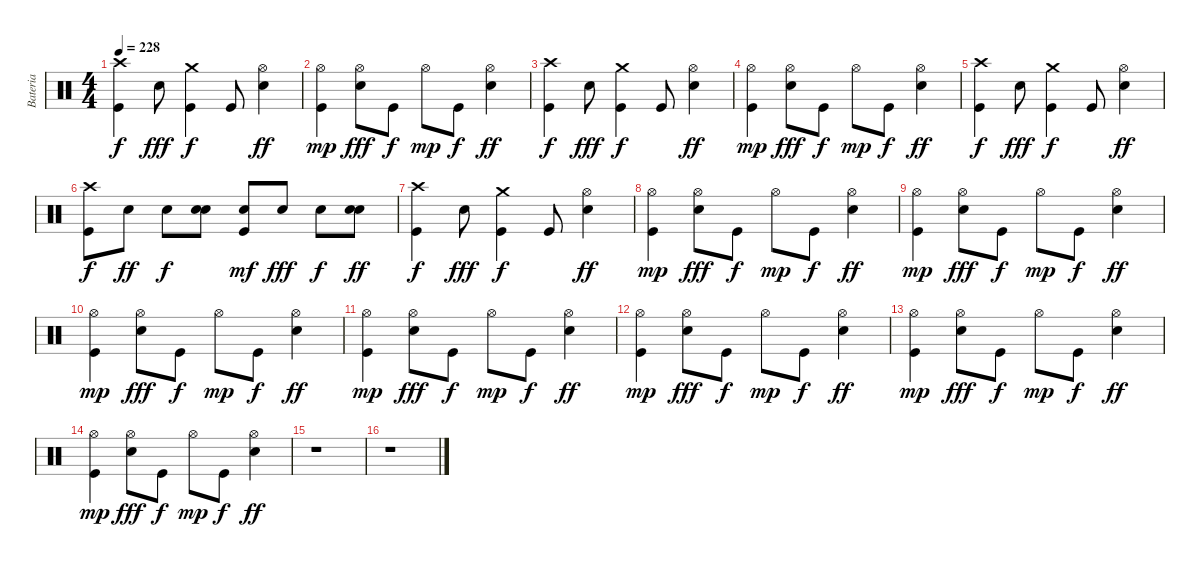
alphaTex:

\track ("Bateria" "Bateria") {instrument percussion}
\staff {score}
\articulation defaults
\ts (4 4)
\tempo 228
\clef neutral
\ks c
("Crash high (hit)" "Kick (hit)").4{dy f} "Electric Snare (hit)".8{dy fff} ("Crash medium (hit)" "Kick (hit)").4{dy f} "Kick (hit)".8 ("Hi-Hat (open)" "Electric Snare (hit)").4{dy ff} |
("Hi-Hat (open)" "Kick (hit)").4{dy mp} ("Hi-Hat (open)" "Electric Snare (hit)").8{dy fff} "Kick (hit)".8{dy f} "Hi-Hat (open)".8{dy mp} "Kick (hit)".8{dy f} ("Hi-Hat (open)" "Electric Snare (hit)").4{dy ff} |
("Crash high (hit)" "Kick (hit)").4{dy f} "Electric Snare (hit)".8{dy fff} ("Crash medium (hit)" "Kick (hit)").4{dy f} "Kick (hit)".8 ("Hi-Hat (open)" "Electric Snare (hit)").4{dy ff} |
("Hi-Hat (open)" "Kick (hit)").4{dy mp} ("Hi-Hat (open)" "Electric Snare (hit)").8{dy fff} "Kick (hit)".8{dy f} "Hi-Hat (open)".8{dy mp} "Kick (hit)".8{dy f} ("Hi-Hat (open)" "Electric Snare (hit)").4{dy ff} |
("Crash high (hit)" "Kick (hit)").4{dy f} "Electric Snare (hit)".8{dy fff} ("Crash medium (hit)" "Kick (hit)").4{dy f} "Kick (hit)".8 ("Hi-Hat (open)" "Electric Snare (hit)").4{dy ff} |
("Crash high (hit)" "Kick (hit)").8{dy f} "Electric Snare (hit)".8{dy ff} "Electric Snare (hit)".8{dy f} ("Electric Snare (hit)" "Electric Snare (hit)").8 ("Electric Snare (hit)" "Kick (hit)").8{dy mf} "Electric Snare (hit)".8{dy fff} "Electric Snare (hit)".8{dy f} ("Electric Snare (hit)" "Electric Snare (hit)").8{dy ff} |
("Crash high (hit)" "Kick (hit)").4{dy f} "Electric Snare (hit)".8{dy fff} ("Crash medium (hit)" "Kick (hit)").4{dy f} "Kick (hit)".8 ("Hi-Hat (open)" "Electric Snare (hit)").4{dy ff} |
("Hi-Hat (open)" "Kick (hit)").4{dy mp} ("Hi-Hat (open)" "Electric Snare (hit)").8{dy fff} "Kick (hit)".8{dy f} "Hi-Hat (open)".8{dy mp} "Kick (hit)".8{dy f} ("Hi-Hat (open)" "Electric Snare (hit)").4{dy ff} |
("Hi-Hat (open)" "Kick (hit)").4{dy mp} ("Hi-Hat (open)" "Electric Snare (hit)").8{dy fff} "Kick (hit)".8{dy f} "Hi-Hat (open)".8{dy mp} "Kick (hit)".8{dy f} ("Hi-Hat (open)" "Electric Snare (hit)").4{dy ff} |
("Hi-Hat (open)" "Kick (hit)").4{dy mp} ("Hi-Hat (open)" "Electric Snare (hit)").8{dy fff} "Kick (hit)".8{dy f} "Hi-Hat (open)".8{dy mp} "Kick (hit)".8{dy f} ("Hi-Hat (open)" "Electric Snare (hit)").4{dy ff} |
("Hi-Hat (open)" "Kick (hit)").4{dy mp} ("Hi-Hat (open)" "Electric Snare (hit)").8{dy fff} "Kick (hit)".8{dy f} "Hi-Hat (open)".8{dy mp} "Kick (hit)".8{dy f} ("Hi-Hat (open)" "Electric Snare (hit)").4{dy ff} |
("Hi-Hat (open)" "Kick (hit)").4{dy mp} ("Hi-Hat (open)" "Electric Snare (hit)").8{dy fff} "Kick (hit)".8{dy f} "Hi-Hat (open)".8{dy mp} "Kick (hit)".8{dy f} ("Hi-Hat (open)" "Electric Snare (hit)").4{dy ff} |
("Hi-Hat (open)" "Kick (hit)").4{dy mp} ("Hi-Hat (open)" "Electric Snare (hit)").8{dy fff} "Kick (hit)".8{dy f} "Hi-Hat (open)".8{dy mp} "Kick (hit)".8{dy f} ("Hi-Hat (open)" "Electric Snare (hit)").4{dy ff} |
("Hi-Hat (open)" "Kick (hit)").4{dy mp} ("Hi-Hat (open)" "Electric Snare (hit)").8{dy fff} "Kick (hit)".8{dy f} "Hi-Hat (open)".8{dy mp} "Kick (hit)".8{dy f} ("Hi-Hat (open)" "Electric Snare (hit)").4{dy ff} |
r.1 |
r.1
